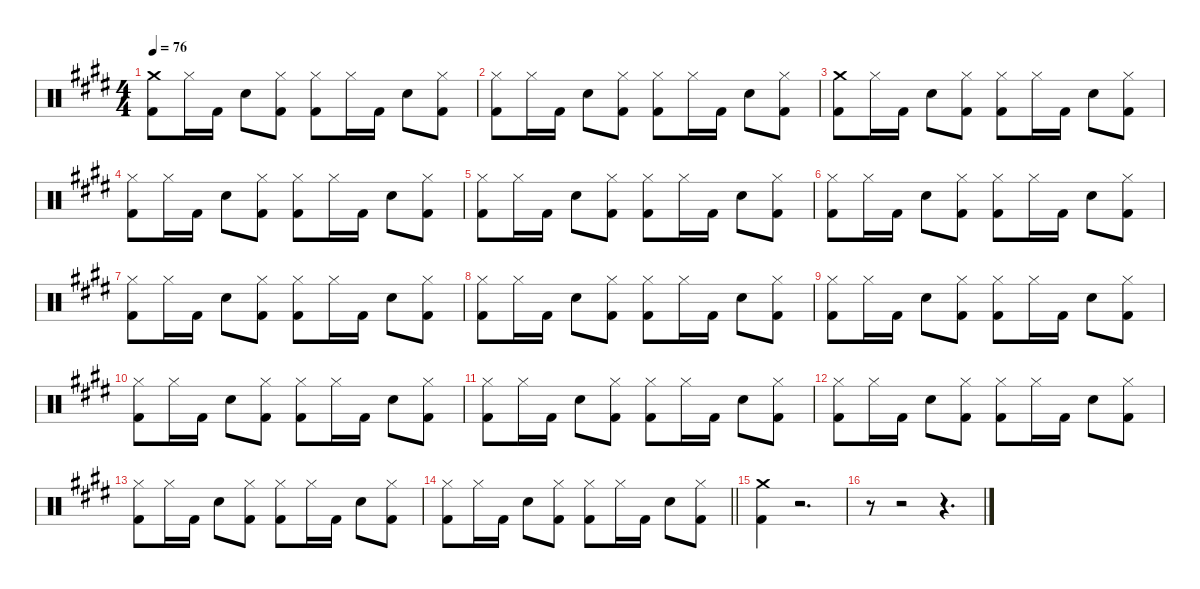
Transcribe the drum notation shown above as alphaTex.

\defaultSystemsLayout 4
\hideDynamics
\bracketExtendMode nobrackets
\singleTrackTrackNamePolicy hidden
\multiTrackTrackNamePolicy hidden
\firstSystemTrackNameMode fullname
\otherSystemsTrackNameOrientation horizontal
\track ("Drums" "drm.") {instrument percussion}
\staff {score}
\articulation defaults
\ts (4 4)
\tempo 76
\clef neutral
\ks e
("Crash medium (hit)"{acc forcenatural} "Kick (hit) 2"{acc forcenatural}).8{dy f beam Down} "Hi-Hat (closed)"{acc forcenatural}.16{beam Down} "Kick (hit) 2"{acc forcenatural}.16{beam Down} "Snare (hit) 2"{acc forcenatural}.8{beam Down} ("Hi-Hat (closed)"{acc forcenatural} "Kick (hit) 2"{acc forcenatural}).8{beam Down} ("Hi-Hat (closed)"{acc forcenatural} "Kick (hit) 2"{acc forcenatural}).8{beam Down} "Hi-Hat (closed)"{acc forcenatural}.16{beam Down} "Kick (hit) 2"{acc forcenatural}.16{beam Down} "Snare (hit) 2"{acc forcenatural}.8{beam Down} ("Hi-Hat (closed)"{acc forcenatural} "Kick (hit) 2"{acc forcenatural}).8{beam Down} |
("Hi-Hat (closed)"{acc forcenatural} "Kick (hit) 2"{acc forcenatural}).8{beam Down} "Hi-Hat (closed)"{acc forcenatural}.16{beam Down} "Kick (hit) 2"{acc forcenatural}.16{beam Down} "Snare (hit) 2"{acc forcenatural}.8{beam Down} ("Hi-Hat (closed)"{acc forcenatural} "Kick (hit) 2"{acc forcenatural}).8{beam Down} ("Hi-Hat (closed)"{acc forcenatural} "Kick (hit) 2"{acc forcenatural}).8{beam Down} "Hi-Hat (closed)"{acc forcenatural}.16{beam Down} "Kick (hit) 2"{acc forcenatural}.16{beam Down} "Snare (hit) 2"{acc forcenatural}.8{beam Down} ("Hi-Hat (closed)"{acc forcenatural} "Kick (hit) 2"{acc forcenatural}).8{beam Down} |
("Crash medium (hit)"{acc forcenatural} "Kick (hit) 2"{acc forcenatural}).8{beam Down} "Hi-Hat (closed)"{acc forcenatural}.16{beam Down} "Kick (hit) 2"{acc forcenatural}.16{beam Down} "Snare (hit) 2"{acc forcenatural}.8{beam Down} ("Hi-Hat (closed)"{acc forcenatural} "Kick (hit) 2"{acc forcenatural}).8{beam Down} ("Hi-Hat (closed)"{acc forcenatural} "Kick (hit) 2"{acc forcenatural}).8{beam Down} "Hi-Hat (closed)"{acc forcenatural}.16{beam Down} "Kick (hit) 2"{acc forcenatural}.16{beam Down} "Snare (hit) 2"{acc forcenatural}.8{beam Down} ("Hi-Hat (closed)"{acc forcenatural} "Kick (hit) 2"{acc forcenatural}).8{beam Down} |
("Hi-Hat (closed)"{acc forcenatural} "Kick (hit) 2"{acc forcenatural}).8{beam Down} "Hi-Hat (closed)"{acc forcenatural}.16{beam Down} "Kick (hit) 2"{acc forcenatural}.16{beam Down} "Snare (hit) 2"{acc forcenatural}.8{beam Down} ("Hi-Hat (closed)"{acc forcenatural} "Kick (hit) 2"{acc forcenatural}).8{beam Down} ("Hi-Hat (closed)"{acc forcenatural} "Kick (hit) 2"{acc forcenatural}).8{beam Down} "Hi-Hat (closed)"{acc forcenatural}.16{beam Down} "Kick (hit) 2"{acc forcenatural}.16{beam Down} "Snare (hit) 2"{acc forcenatural}.8{beam Down} ("Hi-Hat (closed)"{acc forcenatural} "Kick (hit) 2"{acc forcenatural}).8{beam Down} |
("Hi-Hat (closed)"{acc forcenatural} "Kick (hit) 2"{acc forcenatural}).8{beam Down} "Hi-Hat (closed)"{acc forcenatural}.16{beam Down} "Kick (hit) 2"{acc forcenatural}.16{beam Down} "Snare (hit) 2"{acc forcenatural}.8{beam Down} ("Hi-Hat (closed)"{acc forcenatural} "Kick (hit) 2"{acc forcenatural}).8{beam Down} ("Hi-Hat (closed)"{acc forcenatural} "Kick (hit) 2"{acc forcenatural}).8{beam Down} "Hi-Hat (closed)"{acc forcenatural}.16{beam Down} "Kick (hit) 2"{acc forcenatural}.16{beam Down} "Snare (hit) 2"{acc forcenatural}.8{beam Down} ("Hi-Hat (closed)"{acc forcenatural} "Kick (hit) 2"{acc forcenatural}).8{beam Down} |
("Hi-Hat (closed)"{acc forcenatural} "Kick (hit) 2"{acc forcenatural}).8{beam Down} "Hi-Hat (closed)"{acc forcenatural}.16{beam Down} "Kick (hit) 2"{acc forcenatural}.16{beam Down} "Snare (hit) 2"{acc forcenatural}.8{beam Down} ("Hi-Hat (closed)"{acc forcenatural} "Kick (hit) 2"{acc forcenatural}).8{beam Down} ("Hi-Hat (closed)"{acc forcenatural} "Kick (hit) 2"{acc forcenatural}).8{beam Down} "Hi-Hat (closed)"{acc forcenatural}.16{beam Down} "Kick (hit) 2"{acc forcenatural}.16{beam Down} "Snare (hit) 2"{acc forcenatural}.8{beam Down} ("Hi-Hat (closed)"{acc forcenatural} "Kick (hit) 2"{acc forcenatural}).8{beam Down} |
("Hi-Hat (closed)"{acc forcenatural} "Kick (hit) 2"{acc forcenatural}).8{beam Down} "Hi-Hat (closed)"{acc forcenatural}.16{beam Down} "Kick (hit) 2"{acc forcenatural}.16{beam Down} "Snare (hit) 2"{acc forcenatural}.8{beam Down} ("Hi-Hat (closed)"{acc forcenatural} "Kick (hit) 2"{acc forcenatural}).8{beam Down} ("Hi-Hat (closed)"{acc forcenatural} "Kick (hit) 2"{acc forcenatural}).8{beam Down} "Hi-Hat (closed)"{acc forcenatural}.16{beam Down} "Kick (hit) 2"{acc forcenatural}.16{beam Down} "Snare (hit) 2"{acc forcenatural}.8{beam Down} ("Hi-Hat (closed)"{acc forcenatural} "Kick (hit) 2"{acc forcenatural}).8{beam Down} |
("Hi-Hat (closed)"{acc forcenatural} "Kick (hit) 2"{acc forcenatural}).8{beam Down} "Hi-Hat (closed)"{acc forcenatural}.16{beam Down} "Kick (hit) 2"{acc forcenatural}.16{beam Down} "Snare (hit) 2"{acc forcenatural}.8{beam Down} ("Hi-Hat (closed)"{acc forcenatural} "Kick (hit) 2"{acc forcenatural}).8{beam Down} ("Hi-Hat (closed)"{acc forcenatural} "Kick (hit) 2"{acc forcenatural}).8{beam Down} "Hi-Hat (closed)"{acc forcenatural}.16{beam Down} "Kick (hit) 2"{acc forcenatural}.16{beam Down} "Snare (hit) 2"{acc forcenatural}.8{beam Down} ("Hi-Hat (closed)"{acc forcenatural} "Kick (hit) 2"{acc forcenatural}).8{beam Down} |
("Hi-Hat (closed)"{acc forcenatural} "Kick (hit) 2"{acc forcenatural}).8{beam Down} "Hi-Hat (closed)"{acc forcenatural}.16{beam Down} "Kick (hit) 2"{acc forcenatural}.16{beam Down} "Snare (hit) 2"{acc forcenatural}.8{beam Down} ("Hi-Hat (closed)"{acc forcenatural} "Kick (hit) 2"{acc forcenatural}).8{beam Down} ("Hi-Hat (closed)"{acc forcenatural} "Kick (hit) 2"{acc forcenatural}).8{beam Down} "Hi-Hat (closed)"{acc forcenatural}.16{beam Down} "Kick (hit) 2"{acc forcenatural}.16{beam Down} "Snare (hit) 2"{acc forcenatural}.8{beam Down} ("Hi-Hat (closed)"{acc forcenatural} "Kick (hit) 2"{acc forcenatural}).8{beam Down} |
("Hi-Hat (closed)"{acc forcenatural} "Kick (hit) 2"{acc forcenatural}).8{beam Down} "Hi-Hat (closed)"{acc forcenatural}.16{beam Down} "Kick (hit) 2"{acc forcenatural}.16{beam Down} "Snare (hit) 2"{acc forcenatural}.8{beam Down} ("Hi-Hat (closed)"{acc forcenatural} "Kick (hit) 2"{acc forcenatural}).8{beam Down} ("Hi-Hat (closed)"{acc forcenatural} "Kick (hit) 2"{acc forcenatural}).8{beam Down} "Hi-Hat (closed)"{acc forcenatural}.16{beam Down} "Kick (hit) 2"{acc forcenatural}.16{beam Down} "Snare (hit) 2"{acc forcenatural}.8{beam Down} ("Hi-Hat (closed)"{acc forcenatural} "Kick (hit) 2"{acc forcenatural}).8{beam Down} |
("Hi-Hat (closed)"{acc forcenatural} "Kick (hit) 2"{acc forcenatural}).8{beam Down} "Hi-Hat (closed)"{acc forcenatural}.16{beam Down} "Kick (hit) 2"{acc forcenatural}.16{beam Down} "Snare (hit) 2"{acc forcenatural}.8{beam Down} ("Hi-Hat (closed)"{acc forcenatural} "Kick (hit) 2"{acc forcenatural}).8{beam Down} ("Hi-Hat (closed)"{acc forcenatural} "Kick (hit) 2"{acc forcenatural}).8{beam Down} "Hi-Hat (closed)"{acc forcenatural}.16{beam Down} "Kick (hit) 2"{acc forcenatural}.16{beam Down} "Snare (hit) 2"{acc forcenatural}.8{beam Down} ("Hi-Hat (closed)"{acc forcenatural} "Kick (hit) 2"{acc forcenatural}).8{beam Down} |
("Hi-Hat (closed)"{acc forcenatural} "Kick (hit) 2"{acc forcenatural}).8{beam Down} "Hi-Hat (closed)"{acc forcenatural}.16{beam Down} "Kick (hit) 2"{acc forcenatural}.16{beam Down} "Snare (hit) 2"{acc forcenatural}.8{beam Down} ("Hi-Hat (closed)"{acc forcenatural} "Kick (hit) 2"{acc forcenatural}).8{beam Down} ("Hi-Hat (closed)"{acc forcenatural} "Kick (hit) 2"{acc forcenatural}).8{beam Down} "Hi-Hat (closed)"{acc forcenatural}.16{beam Down} "Kick (hit) 2"{acc forcenatural}.16{beam Down} "Snare (hit) 2"{acc forcenatural}.8{beam Down} ("Hi-Hat (closed)"{acc forcenatural} "Kick (hit) 2"{acc forcenatural}).8{beam Down} |
("Hi-Hat (closed)"{acc forcenatural} "Kick (hit) 2"{acc forcenatural}).8{beam Down} "Hi-Hat (closed)"{acc forcenatural}.16{beam Down} "Kick (hit) 2"{acc forcenatural}.16{beam Down} "Snare (hit) 2"{acc forcenatural}.8{beam Down} ("Hi-Hat (closed)"{acc forcenatural} "Kick (hit) 2"{acc forcenatural}).8{beam Down} ("Hi-Hat (closed)"{acc forcenatural} "Kick (hit) 2"{acc forcenatural}).8{beam Down} "Hi-Hat (closed)"{acc forcenatural}.16{beam Down} "Kick (hit) 2"{acc forcenatural}.16{beam Down} "Snare (hit) 2"{acc forcenatural}.8{beam Down} ("Hi-Hat (closed)"{acc forcenatural} "Kick (hit) 2"{acc forcenatural}).8{beam Down} |
\barLineRight lightlight
("Hi-Hat (closed)"{acc forcenatural} "Kick (hit) 2"{acc forcenatural}).8{beam Down} "Hi-Hat (closed)"{acc forcenatural}.16{beam Down} "Kick (hit) 2"{acc forcenatural}.16{beam Down} "Snare (hit) 2"{acc forcenatural}.8{beam Down} ("Hi-Hat (closed)"{acc forcenatural} "Kick (hit) 2"{acc forcenatural}).8{beam Down} ("Hi-Hat (closed)"{acc forcenatural} "Kick (hit) 2"{acc forcenatural}).8{beam Down} "Hi-Hat (closed)"{acc forcenatural}.16{beam Down} "Kick (hit) 2"{acc forcenatural}.16{beam Down} "Snare (hit) 2"{acc forcenatural}.8{beam Down} ("Hi-Hat (closed)"{acc forcenatural} "Kick (hit) 2"{acc forcenatural}).8{beam Down} |
("Crash medium (hit)"{acc forcenatural} "Kick (hit) 2"{acc forcenatural}).4{beam Down} r.2{d beam Down} |
r.8{beam Down} r.2{beam Down} r.4{d beam Down}
